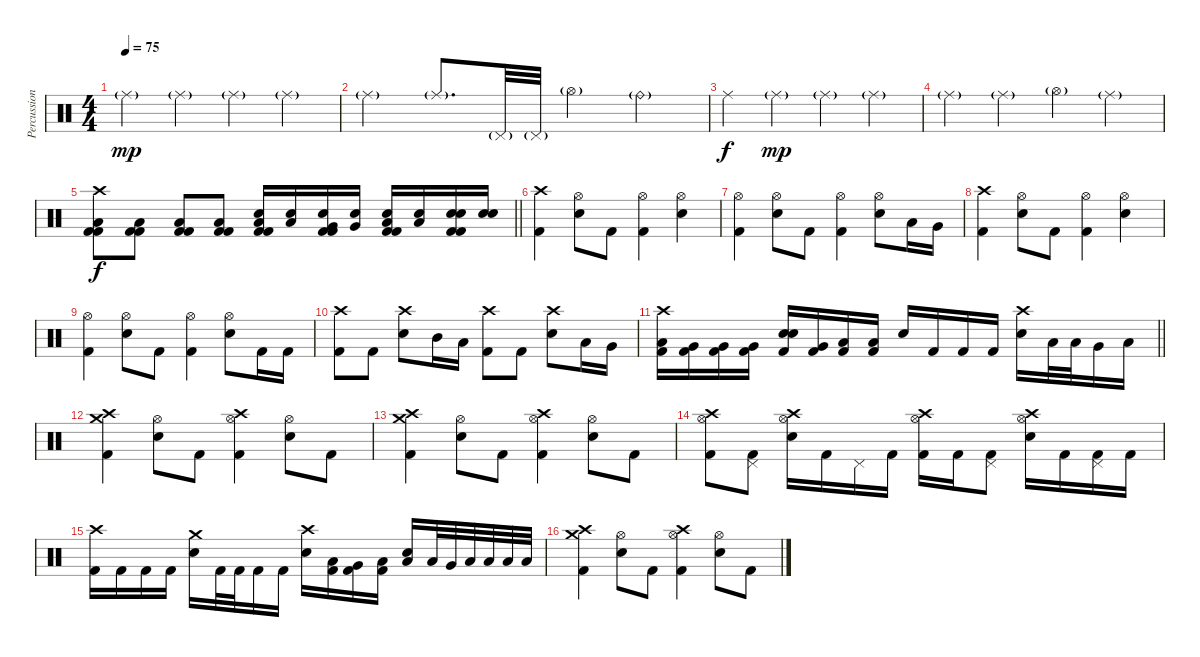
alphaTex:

\track ("Percussions" "Percussion") {instrument percussion}
\staff {score}
\articulation defaults
\ts (4 4)
\tempo 75
\clef neutral
\ks c "Ride (middle)"{g}.4{dy mp} "Ride (middle)"{g}.4 "Ride (middle)"{g}.4 "Ride (middle)"{g}.4
|
"Ride (middle)"{g}.4 "Ride (middle)"{g}.8{d} "Pedal Hi-Hat (hit)"{g}.32 "Pedal Hi-Hat (hit)"{g}.32 "Hi-Hat (open)"{g}.4 "Ride (bell)"{g}.4 |
"Ride (middle)".4{dy f} "Ride (middle)"{g}.4{dy mp} "Ride (middle)"{g}.4 "Ride (middle)"{g}.4 |
"Ride (middle)"{g}.4 "Ride (middle)"{g}.4 "Hi-Hat (open)"{g}.4 "Ride (middle)"{g}.4 |
\barLineRight lightlight
("Crash high (hit)" "Low Tom (hit)" "Kick (hit) 2" "Kick (hit) 2").8{dy f} ("Low Tom (hit)" "Kick (hit) 2" "Kick (hit) 2").8 ("Low Tom (hit)" "Kick (hit) 2" "Kick (hit) 2").8 ("Low Tom (hit)" "Kick (hit) 2" "Kick (hit) 2").8 ("Low Tom (hit)" "Electric Snare (hit)" "Kick (hit) 2" "Kick (hit) 2").16 ("Low Tom (hit)" "Electric Snare (hit)").16 ("Very Low Tom (hit)" "Electric Snare (hit)" "Kick (hit) 2" "Kick (hit) 2").16 ("Very Low Tom (hit)" "Electric Snare (hit)").16 ("Low Floor Tom (hit)" "Electric Snare (hit)" "Kick (hit) 2" "Kick (hit) 2").16 ("Low Floor Tom (hit)" "Electric Snare (hit)").16 ("Electric Snare (hit)" "Electric Snare (hit)" "Kick (hit) 2" "Kick (hit) 2").16 ("Electric Snare (hit)" "Electric Snare (hit)").16 |
("Crash high (hit)" "Kick (hit) 2").4 ("Hi-Hat (open)" "Electric Snare (hit)").8 "Kick (hit) 2".8 ("Hi-Hat (open)" "Kick (hit) 2").4 ("Hi-Hat (open)" "Electric Snare (hit)").4 |
("Hi-Hat (open)" "Kick (hit) 2").4 ("Hi-Hat (open)" "Electric Snare (hit)").8 "Kick (hit) 2".8 ("Hi-Hat (open)" "Kick (hit) 2").4 ("Hi-Hat (open)" "Electric Snare (hit)").8 "Low Tom (hit)".16 "Very Low Tom (hit)".16 |
("Crash high (hit)" "Kick (hit) 2").4 ("Hi-Hat (open)" "Electric Snare (hit)").8 "Kick (hit) 2".8 ("Hi-Hat (open)" "Kick (hit) 2").4 ("Hi-Hat (open)" "Electric Snare (hit)").4 |
("Hi-Hat (open)" "Kick (hit) 2").4 ("Hi-Hat (open)" "Electric Snare (hit)").8 "Kick (hit) 2".8 ("Hi-Hat (open)" "Kick (hit) 2").4 ("Hi-Hat (open)" "Electric Snare (hit)").8 "Kick (hit) 2".16 "Kick (hit) 2".16 |
("Crash high (hit)" "Kick (hit) 2").8 "Kick (hit) 2".8 ("Crash high (hit)" "Electric Snare (hit)").8 "Mid Tom (hit)".16 "Low Tom (hit)".16 ("Crash high (hit)" "Kick (hit) 2").8 "Kick (hit) 2".8 ("Crash high (hit)" "Electric Snare (hit)").8 "Low Tom (hit)".16 "Very Low Tom (hit)".16 |
\barLineRight lightlight
("Crash high (hit)" "Low Tom (hit)" "Kick (hit) 2").16 ("Very Low Tom (hit)" "Kick (hit) 2").16 ("Very Low Tom (hit)" "Kick (hit) 2").16 ("Very Low Tom (hit)" "Kick (hit) 2").16 ("Electric Snare (hit)" "Electric Snare (hit)" "Kick (hit) 2").16 ("Very Low Tom (hit)" "Kick (hit) 2").16 ("Low Floor Tom (hit)" "Kick (hit) 2").16 ("Low Floor Tom (hit)" "Kick (hit) 2").16 "Electric Snare (hit)".16 "Kick (hit) 2".16 "Kick (hit) 2".16 "Kick (hit) 2".16 ("Crash high (hit)" "Electric Snare (hit)").16 "Low Tom (hit)".32 "Low Tom (hit)".32 "Very Low Tom (hit)".16 "Low Floor Tom (hit)".16 |
("Crash medium (hit)" "Crash high (hit)" "Kick (hit) 2").4 ("Hi-Hat (open)" "Electric Snare (hit)").8 "Kick (hit) 2".8 ("Crash high (hit)" "Hi-Hat (open)" "Kick (hit) 2").4 ("Hi-Hat (open)" "Electric Snare (hit)").8 "Kick (hit) 2".8 |
("Crash medium (hit)" "Crash high (hit)" "Kick (hit) 2").4 ("Hi-Hat (open)" "Electric Snare (hit)").8 "Kick (hit) 2".8 ("Crash high (hit)" "Hi-Hat (open)" "Kick (hit) 2").4 ("Hi-Hat (open)" "Electric Snare (hit)").8 "Kick (hit) 2".8 |
("Crash high (hit)" "Hi-Hat (open)" "Kick (hit) 2").8 ("Pedal Hi-Hat (hit)" "Kick (hit) 2").8 ("Crash high (hit)" "Hi-Hat (open)" "Electric Snare (hit)").16 "Kick (hit) 2".16 "Pedal Hi-Hat (hit)".16 "Kick (hit) 2".16 ("Crash high (hit)" "Hi-Hat (open)" "Kick (hit) 2").16 "Kick (hit) 2".16 ("Pedal Hi-Hat (hit)" "Kick (hit) 2").8 ("Crash high (hit)" "Hi-Hat (open)" "Electric Snare (hit)").16 "Kick (hit) 2".16 ("Pedal Hi-Hat (hit)" "Kick (hit) 2").16 "Kick (hit) 2".16 |
("Crash high (hit)" "Kick (hit) 2").16 "Kick (hit) 2".16 "Kick (hit) 2".16 "Kick (hit) 2".16 ("Crash medium (hit)" "Electric Snare (hit)").16 "Kick (hit) 2".32 "Kick (hit) 2".32 "Kick (hit) 2".16 "Kick (hit) 2".16 ("Crash high (hit)" "Electric Snare (hit)").16 ("Low Tom (hit)" "Kick (hit) 2").16 ("Very Low Tom (hit)" "Kick (hit) 2").16 ("Low Floor Tom (hit)" "Kick (hit) 2").16 ("Electric Snare (hit)" "Low Tom (hit)").16 "Low Tom (hit)".32 "Very Low Tom (hit)".32 "Low Floor Tom (hit)".32 "Low Floor Tom (hit)".32 "Low Floor Tom (hit)".32 "Low Floor Tom (hit)".32 |
("Crash medium (hit)" "Crash high (hit)" "Kick (hit) 2").4 ("Hi-Hat (open)" "Electric Snare (hit)").8 "Kick (hit) 2".8 ("Crash high (hit)" "Hi-Hat (open)" "Kick (hit) 2").4 ("Hi-Hat (open)" "Electric Snare (hit)").8 "Kick (hit) 2".8
